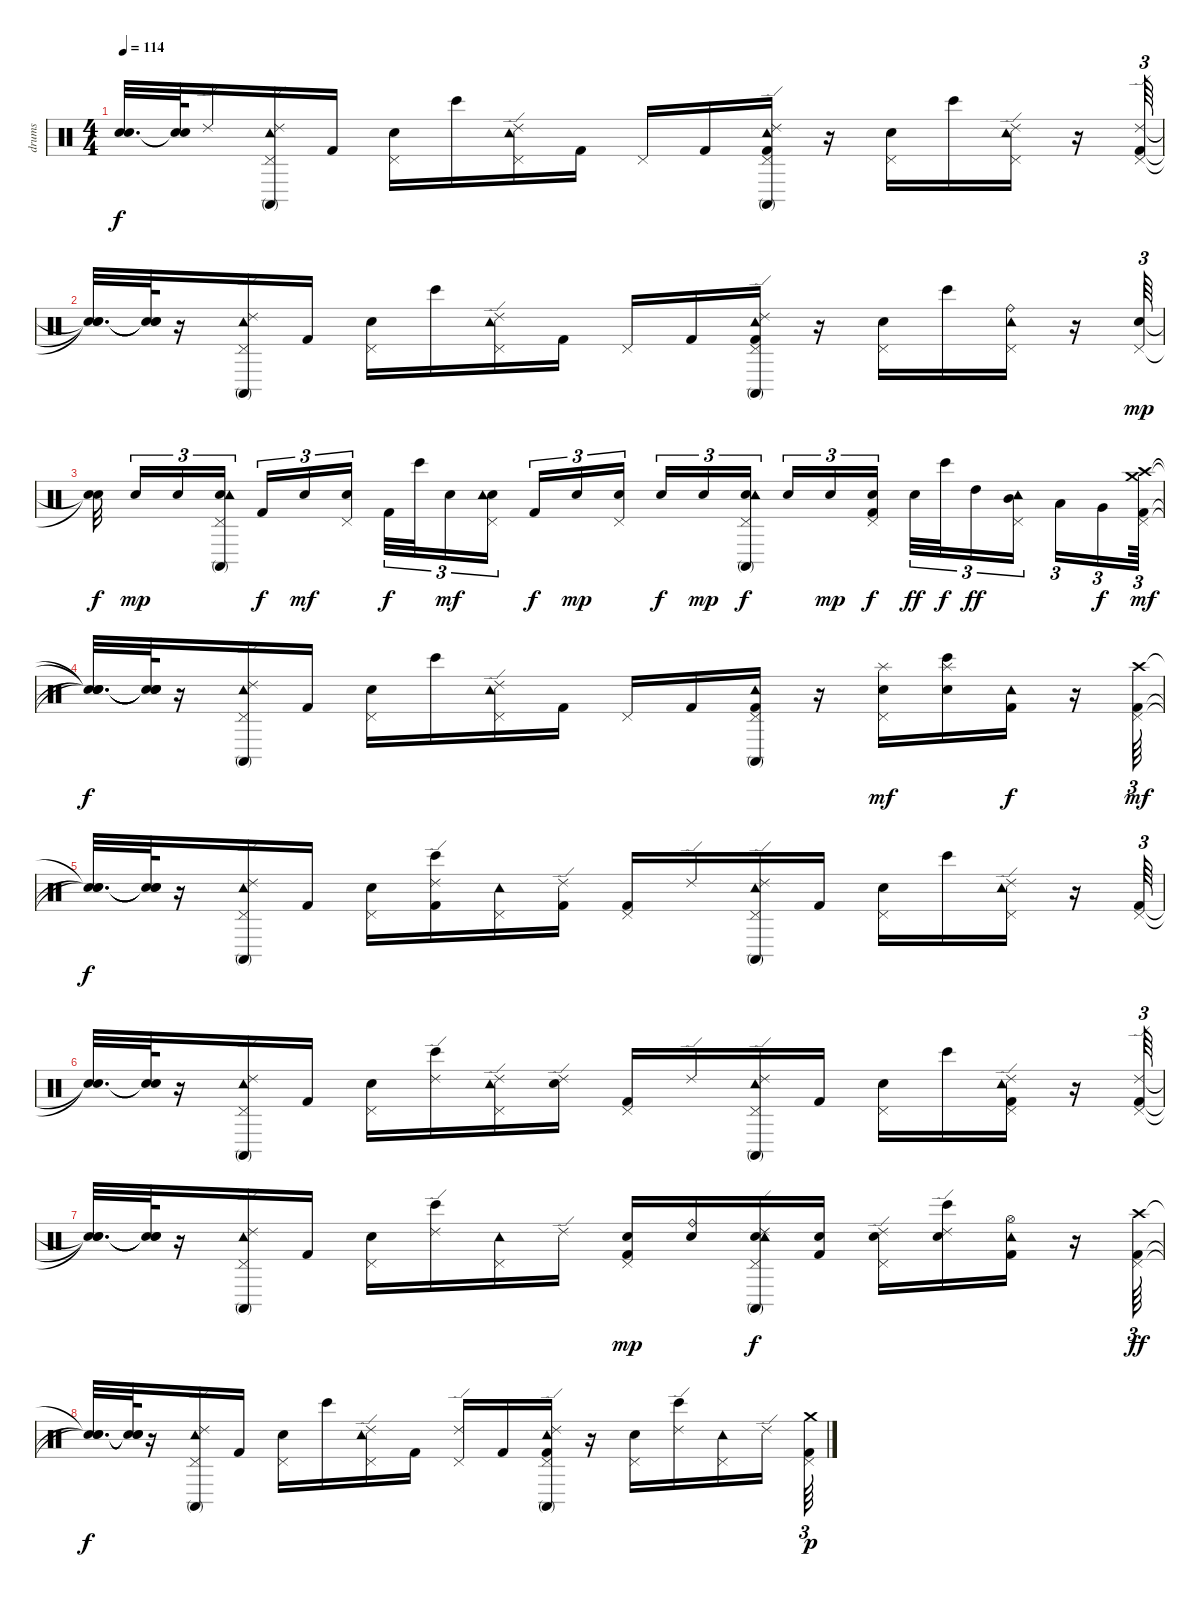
\track ("drums" "drums") {instrument percussion}
\staff {score}
\articulation defaults
\ts (4 4)
\tempo 114
\clef neutral
\ks c
("Snare (hit)"{t} "Snare (hit)"{t}).32{d dy f} ("Snare (hit)"{t} "Snare (hit)"{t}).64 "Ride (edge) 2".16 ("Ride (edge) 2" "Pedal Hi-Hat (hit)" "Tambourine (hit)" "Conga high (mute)").16 "Kick (hit) 2".16 ("Electric Snare (hit)" "Pedal Hi-Hat (hit)").16 "Bongo High (hit)".16 ("Ride (edge) 2" "Pedal Hi-Hat (hit)" "Tambourine (hit)").16 "Kick (hit) 2".16 "Pedal Hi-Hat (hit)".16 "Kick (hit) 2".16 ("Ride (edge) 2" "Kick (hit) 2" "Pedal Hi-Hat (hit)" "Conga high (mute)" "Tambourine (hit)").16 r.16 ("Electric Snare (hit)" "Pedal Hi-Hat (hit)").16 "Bongo High (hit)".16 ("Ride (edge) 2" "Pedal Hi-Hat (hit)" "Tambourine (hit)").16 r.16 ("Ride (edge) 2" "Kick (hit) 2" "Pedal Hi-Hat (hit)").64{tu (3 2)} |
("Snare (hit)"{t} "Snare (hit)"{t} "Snare (hit)"{t}).32{d} ("Snare (hit)"{t} "Snare (hit)"{t} "Snare (hit)"{t}).64 r.16 ("Ride (edge) 2" "Pedal Hi-Hat (hit)" "Tambourine (hit)" "Conga high (mute)").16 "Kick (hit) 2".16 ("Electric Snare (hit)" "Pedal Hi-Hat (hit)").16 "Bongo High (hit)".16 ("Ride (edge) 2" "Pedal Hi-Hat (hit)" "Tambourine (hit)").16 "Kick (hit) 2".16 "Pedal Hi-Hat (hit)".16 "Kick (hit) 2".16 ("Ride (edge) 2" "Kick (hit) 2" "Pedal Hi-Hat (hit)" "Conga high (mute)" "Tambourine (hit)").16 r.16 ("Electric Snare (hit)" "Pedal Hi-Hat (hit)").16 "Bongo High (hit)".16 ("Ride (bell)" "Pedal Hi-Hat (hit)" "Tambourine (hit)").16 r.16 ("Electric Snare (hit)" "Pedal Hi-Hat (hit)").64{tu (3 2) dy mp} |
("Snare (hit)"{t} "Snare (hit)"{t}).32{dy f} "Electric Snare (hit)".16{tu (3 2) dy mp} "Electric Snare (hit)".16{tu (3 2)} ("Electric Snare (hit)" "Pedal Hi-Hat (hit)" "Tambourine (hit)" "Conga high (mute)").16{tu (3 2)} "Kick (hit) 2".16{tu (3 2) dy f} "Electric Snare (hit)".16{tu (3 2) dy mf} ("Electric Snare (hit)" "Pedal Hi-Hat (hit)").16{tu (3 2)} "Kick (hit) 2".32{tu (3 2) dy f} "Bongo High (hit)".32{tu (3 2)} "Electric Snare (hit)".16{tu (3 2) dy mf} ("Electric Snare (hit)" "Pedal Hi-Hat (hit)" "Tambourine (hit)").16{tu (3 2)} "Kick (hit) 2".16{tu (3 2) dy f} "Electric Snare (hit)".16{tu (3 2) dy mp} ("Electric Snare (hit)" "Pedal Hi-Hat (hit)").16{tu (3 2)} "Electric Snare (hit)".16{tu (3 2) dy f} "Electric Snare (hit)".16{tu (3 2) dy mp} ("Electric Snare (hit)" "Pedal Hi-Hat (hit)" "Conga high (mute)" "Tambourine (hit)").16{tu (3 2) dy f} "Electric Snare (hit)".16{tu (3 2)} "Electric Snare (hit)".16{tu (3 2) dy mp} ("Kick (hit) 2" "Electric Snare (hit)" "Pedal Hi-Hat (hit)").16{tu (3 2) dy f} "Electric Snare (hit)".32{tu (3 2) dy ff} "Bongo High (hit)".32{tu (3 2) dy f} "High Tom (hit)".16{tu (3 2) dy ff} ("Mid Tom (hit)" "Pedal Hi-Hat (hit)" "Tambourine (hit)").16{tu (3 2)} "Low Tom (hit)".16{tu (3 2)} "Very Low Tom (hit)".16{tu (3 2) dy f} ("Crash high (hit)" "Crash medium (hit)" "Kick (hit) 2" "Pedal Hi-Hat (hit)").64{tu (3 2) dy mf} |
("Snare (hit)"{t} "Snare (hit)"{t} "Snare (hit)"{t} "Snare (hit)"{t}).32{d dy f} ("Snare (hit)"{t} "Snare (hit)"{t} "Snare (hit)"{t} "Snare (hit)"{t}).64 r.16 ("Ride (edge) 2" "Pedal Hi-Hat (hit)" "Tambourine (hit)" "Conga high (mute)").16 "Kick (hit) 2".16 ("Electric Snare (hit)" "Pedal Hi-Hat (hit)").16 "Bongo High (hit)".16 ("Ride (edge) 2" "Pedal Hi-Hat (hit)" "Tambourine (hit)").16 "Kick (hit) 2".16 "Pedal Hi-Hat (hit)".16 "Kick (hit) 2".16 ("Kick (hit) 2" "Pedal Hi-Hat (hit)" "Conga high (mute)" "Tambourine (hit)").16 r.16 ("Splash (hit)" "Electric Snare (hit)" "Pedal Hi-Hat (hit)").16{dy mf} ("Splash (hit)" "Electric Snare (hit)" "Bongo High (hit)").16 ("Kick (hit) 2" "Tambourine (hit)").16{dy f} r.16 ("Crash high (hit)" "Kick (hit) 2" "Pedal Hi-Hat (hit)").64{tu (3 2) dy mf} |
("Snare (hit)"{t} "Snare (hit)"{t} "Snare (hit)"{t}).32{d dy f} ("Snare (hit)"{t} "Snare (hit)"{t} "Snare (hit)"{t}).64 r.16 ("Ride (edge) 2" "Pedal Hi-Hat (hit)" "Tambourine (hit)" "Conga high (mute)").16 "Kick (hit) 2".16 ("Electric Snare (hit)" "Pedal Hi-Hat (hit)").16 ("Ride (edge) 2" "Kick (hit) 2" "Bongo High (hit)").16 ("Pedal Hi-Hat (hit)" "Tambourine (hit)").16 ("Ride (edge) 2" "Kick (hit) 2").16 ("Kick (hit) 2" "Pedal Hi-Hat (hit)").16 "Ride (edge) 2".16 ("Ride (edge) 2" "Pedal Hi-Hat (hit)" "Conga high (mute)" "Tambourine (hit)").16 "Kick (hit) 2".16 ("Electric Snare (hit)" "Pedal Hi-Hat (hit)").16 "Bongo High (hit)".16 ("Ride (edge) 2" "Pedal Hi-Hat (hit)" "Tambourine (hit)").16 r.16 ("Kick (hit) 2" "Pedal Hi-Hat (hit)").64{tu (3 2)} |
("Snare (hit)"{t} "Snare (hit)"{t}).32{d} ("Snare (hit)"{t} "Snare (hit)"{t}).64 r.16 ("Ride (edge) 2" "Pedal Hi-Hat (hit)" "Tambourine (hit)" "Conga high (mute)").16 "Kick (hit) 2".16 ("Electric Snare (hit)" "Pedal Hi-Hat (hit)").16 ("Ride (edge) 2" "Bongo High (hit)").16 ("Ride (edge) 2" "Pedal Hi-Hat (hit)" "Tambourine (hit)").16 ("Ride (edge) 2" "Electric Snare (hit)").16 ("Kick (hit) 2" "Pedal Hi-Hat (hit)").16 "Ride (edge) 2".16 ("Ride (edge) 2" "Pedal Hi-Hat (hit)" "Conga high (mute)" "Tambourine (hit)").16 "Kick (hit) 2".16 ("Electric Snare (hit)" "Pedal Hi-Hat (hit)").16 "Bongo High (hit)".16 ("Ride (edge) 2" "Kick (hit) 2" "Pedal Hi-Hat (hit)" "Tambourine (hit)").16 r.16 ("Ride (edge) 2" "Kick (hit) 2" "Pedal Hi-Hat (hit)").64{tu (3 2)} |
("Snare (hit)"{t} "Snare (hit)"{t} "Snare (hit)"{t}).32{d} ("Snare (hit)"{t} "Snare (hit)"{t} "Snare (hit)"{t}).64 r.16 ("Ride (edge) 2" "Pedal Hi-Hat (hit)" "Tambourine (hit)" "Conga high (mute)").16 "Kick (hit) 2".16 ("Electric Snare (hit)" "Pedal Hi-Hat (hit)").16 ("Ride (edge) 2" "Bongo High (hit)").16 ("Pedal Hi-Hat (hit)" "Tambourine (hit)").16 "Ride (edge) 2".16 ("Electric Snare (hit)" "Kick (hit) 2" "Pedal Hi-Hat (hit)").16{dy mp} ("Electric Snare (hit)" "Ride (bell)").16 ("Electric Snare (hit)" "Ride (edge) 2" "Pedal Hi-Hat (hit)" "Conga high (mute)" "Tambourine (hit)").16{dy f} ("Electric Snare (hit)" "Kick (hit) 2").16 ("Ride (edge) 2" "Electric Snare (hit)" "Pedal Hi-Hat (hit)").16 ("Electric Snare (hit)" "Ride (edge) 2" "Bongo High (hit)").16 ("Hi-Hat (open)" "Kick (hit) 2" "Tambourine (hit)").16 r.16 ("Crash high (hit)" "Kick (hit) 2" "Pedal Hi-Hat (hit)").64{tu (3 2) dy ff} |
("Snare (hit)"{t} "Snare (hit)"{t} "Snare (hit)"{t}).32{d dy f} ("Snare (hit)"{t} "Snare (hit)"{t} "Snare (hit)"{t}).64 r.16 ("Ride (edge) 2" "Pedal Hi-Hat (hit)" "Tambourine (hit)" "Conga high (mute)").16 "Kick (hit) 2".16 ("Electric Snare (hit)" "Pedal Hi-Hat (hit)").16 "Bongo High (hit)".16 ("Ride (edge) 2" "Pedal Hi-Hat (hit)" "Tambourine (hit)").16 "Kick (hit) 2".16 ("Ride (edge) 2" "Pedal Hi-Hat (hit)").16 "Kick (hit) 2".16 ("Ride (edge) 2" "Kick (hit) 2" "Pedal Hi-Hat (hit)" "Conga high (mute)" "Tambourine (hit)").16 r.16 ("Electric Snare (hit)" "Pedal Hi-Hat (hit)").16 ("Ride (edge) 2" "Bongo High (hit)").16 ("Pedal Hi-Hat (hit)" "Tambourine (hit)").16 "Ride (edge) 2".16 ("Crash medium (hit)" "Kick (hit) 2" "Pedal Hi-Hat (hit)").64{tu (3 2) dy p}
